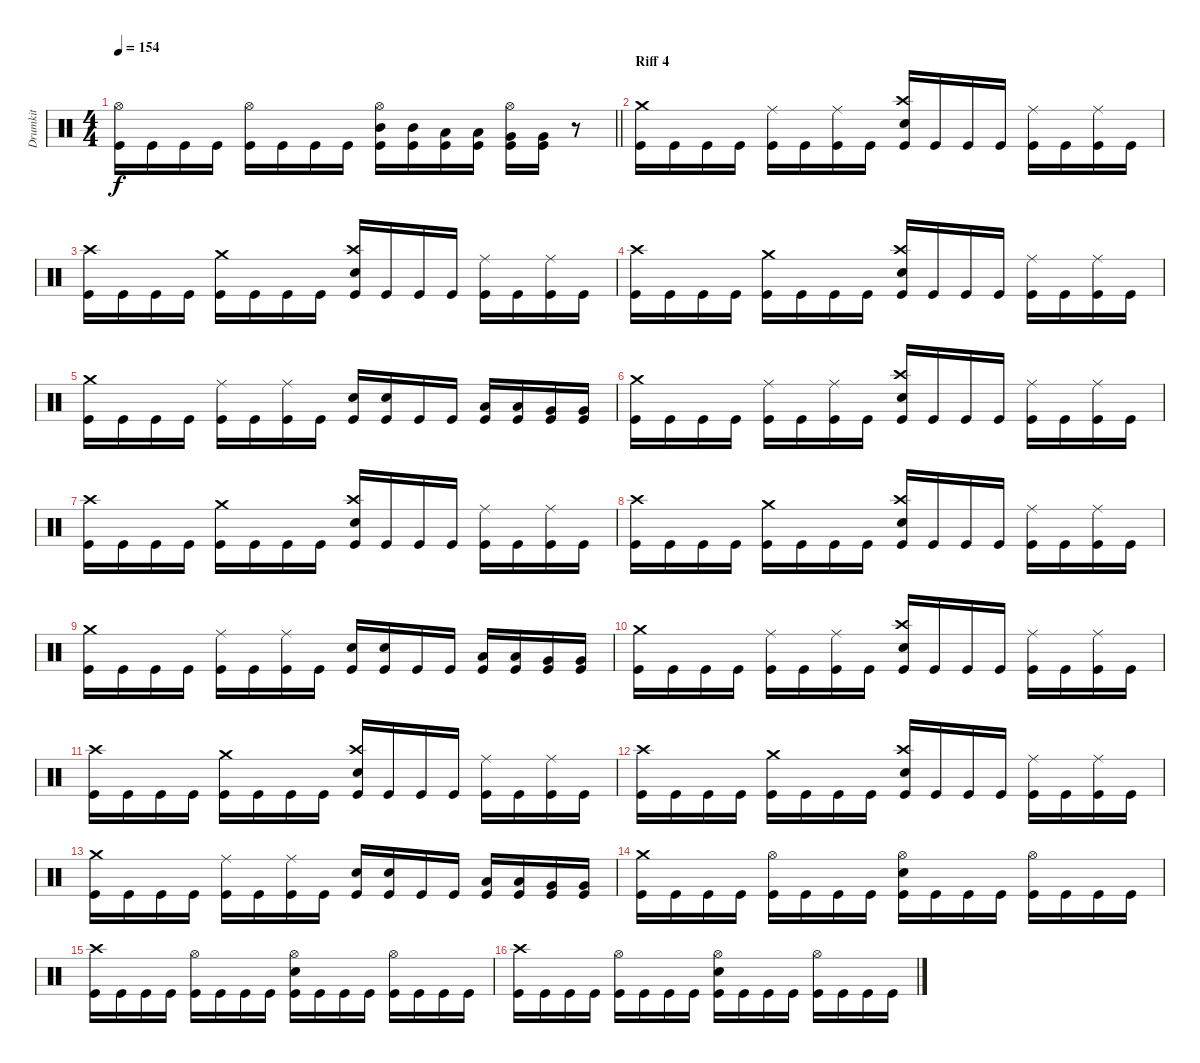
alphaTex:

\track ("Drumkit" "Drumkit") {mute instrument percussion}
\staff {score}
\articulation defaults
\ts (4 4)
\tempo 154
\clef neutral
\barLineRight lightlight
\ks c
("Hi-Hat (open)" "Kick (hit)").16{dy f} "Kick (hit)".16 "Kick (hit)".16 "Kick (hit)".16 ("Hi-Hat (open)" "Kick (hit)").16 "Kick (hit)".16 "Kick (hit)".16 "Kick (hit)".16 ("Hi-Hat (open)" "Mid Tom (hit)" "Kick (hit)").16 ("Mid Tom (hit)" "Kick (hit)").16 ("Low Tom (hit)" "Kick (hit)").16 ("Low Tom (hit)" "Kick (hit)").16 ("Hi-Hat (open)" "Very Low Tom (hit)" "Kick (hit)").16 ("Very Low Tom (hit)" "Kick (hit)").16 r.8 |
\section ("" "Riff 4")
("Crash medium (hit)" "Kick (hit)").16 "Kick (hit)".16 "Kick (hit)".16 "Kick (hit)".16 ("Ride (middle)" "Kick (hit)").16 "Kick (hit)".16 ("Ride (middle)" "Kick (hit)").16 "Kick (hit)".16 ("Crash high (hit)" "Snare (hit) 2" "Kick (hit)").16 "Kick (hit)".16 "Kick (hit)".16 "Kick (hit)".16 ("Ride (middle)" "Kick (hit)").16 "Kick (hit)".16 ("Ride (middle)" "Kick (hit)").16 "Kick (hit)".16 |
("Crash high (hit)" "Kick (hit)").16 "Kick (hit)".16 "Kick (hit)".16 "Kick (hit)".16 ("Crash medium (hit)" "Kick (hit)").16 "Kick (hit)".16 "Kick (hit)".16 "Kick (hit)".16 ("Crash high (hit)" "Snare (hit) 2" "Kick (hit)").16 "Kick (hit)".16 "Kick (hit)".16 "Kick (hit)".16 ("Ride (middle)" "Kick (hit)").16 "Kick (hit)".16 ("Ride (middle)" "Kick (hit)").16 "Kick (hit)".16 |
("Crash high (hit)" "Kick (hit)").16 "Kick (hit)".16 "Kick (hit)".16 "Kick (hit)".16 ("Crash medium (hit)" "Kick (hit)").16 "Kick (hit)".16 "Kick (hit)".16 "Kick (hit)".16 ("Crash high (hit)" "Snare (hit) 2" "Kick (hit)").16 "Kick (hit)".16 "Kick (hit)".16 "Kick (hit)".16 ("Ride (middle)" "Kick (hit)").16 "Kick (hit)".16 ("Ride (middle)" "Kick (hit)").16 "Kick (hit)".16 |
("Crash medium (hit)" "Kick (hit)").16 "Kick (hit)".16 "Kick (hit)".16 "Kick (hit)".16 ("Ride (middle)" "Kick (hit)").16 "Kick (hit)".16 ("Ride (middle)" "Kick (hit)").16 "Kick (hit)".16 ("Snare (hit) 2" "Kick (hit)").16 ("Snare (hit) 2" "Kick (hit)").16 "Kick (hit)".16 "Kick (hit)".16 ("Low Tom (hit)" "Kick (hit)").16 ("Low Tom (hit)" "Kick (hit)").16 ("Very Low Tom (hit)" "Kick (hit)").16 ("Very Low Tom (hit)" "Kick (hit)").16 |
("Crash medium (hit)" "Kick (hit)").16 "Kick (hit)".16 "Kick (hit)".16 "Kick (hit)".16 ("Ride (middle)" "Kick (hit)").16 "Kick (hit)".16 ("Ride (middle)" "Kick (hit)").16 "Kick (hit)".16 ("Crash high (hit)" "Snare (hit) 2" "Kick (hit)").16 "Kick (hit)".16 "Kick (hit)".16 "Kick (hit)".16 ("Ride (middle)" "Kick (hit)").16 "Kick (hit)".16 ("Ride (middle)" "Kick (hit)").16 "Kick (hit)".16 |
("Crash high (hit)" "Kick (hit)").16 "Kick (hit)".16 "Kick (hit)".16 "Kick (hit)".16 ("Crash medium (hit)" "Kick (hit)").16 "Kick (hit)".16 "Kick (hit)".16 "Kick (hit)".16 ("Crash high (hit)" "Snare (hit) 2" "Kick (hit)").16 "Kick (hit)".16 "Kick (hit)".16 "Kick (hit)".16 ("Ride (middle)" "Kick (hit)").16 "Kick (hit)".16 ("Ride (middle)" "Kick (hit)").16 "Kick (hit)".16 |
("Crash high (hit)" "Kick (hit)").16 "Kick (hit)".16 "Kick (hit)".16 "Kick (hit)".16 ("Crash medium (hit)" "Kick (hit)").16 "Kick (hit)".16 "Kick (hit)".16 "Kick (hit)".16 ("Crash high (hit)" "Snare (hit) 2" "Kick (hit)").16 "Kick (hit)".16 "Kick (hit)".16 "Kick (hit)".16 ("Ride (middle)" "Kick (hit)").16 "Kick (hit)".16 ("Ride (middle)" "Kick (hit)").16 "Kick (hit)".16 |
("Crash medium (hit)" "Kick (hit)").16 "Kick (hit)".16 "Kick (hit)".16 "Kick (hit)".16 ("Ride (middle)" "Kick (hit)").16 "Kick (hit)".16 ("Ride (middle)" "Kick (hit)").16 "Kick (hit)".16 ("Snare (hit) 2" "Kick (hit)").16 ("Snare (hit) 2" "Kick (hit)").16 "Kick (hit)".16 "Kick (hit)".16 ("Low Tom (hit)" "Kick (hit)").16 ("Low Tom (hit)" "Kick (hit)").16 ("Very Low Tom (hit)" "Kick (hit)").16 ("Very Low Tom (hit)" "Kick (hit)").16 |
("Crash medium (hit)" "Kick (hit)").16 "Kick (hit)".16 "Kick (hit)".16 "Kick (hit)".16 ("Ride (middle)" "Kick (hit)").16 "Kick (hit)".16 ("Ride (middle)" "Kick (hit)").16 "Kick (hit)".16 ("Crash high (hit)" "Snare (hit) 2" "Kick (hit)").16 "Kick (hit)".16 "Kick (hit)".16 "Kick (hit)".16 ("Ride (middle)" "Kick (hit)").16 "Kick (hit)".16 ("Ride (middle)" "Kick (hit)").16 "Kick (hit)".16 |
("Crash high (hit)" "Kick (hit)").16 "Kick (hit)".16 "Kick (hit)".16 "Kick (hit)".16 ("Crash medium (hit)" "Kick (hit)").16 "Kick (hit)".16 "Kick (hit)".16 "Kick (hit)".16 ("Crash high (hit)" "Snare (hit) 2" "Kick (hit)").16 "Kick (hit)".16 "Kick (hit)".16 "Kick (hit)".16 ("Ride (middle)" "Kick (hit)").16 "Kick (hit)".16 ("Ride (middle)" "Kick (hit)").16 "Kick (hit)".16 |
("Crash high (hit)" "Kick (hit)").16 "Kick (hit)".16 "Kick (hit)".16 "Kick (hit)".16 ("Crash medium (hit)" "Kick (hit)").16 "Kick (hit)".16 "Kick (hit)".16 "Kick (hit)".16 ("Crash high (hit)" "Snare (hit) 2" "Kick (hit)").16 "Kick (hit)".16 "Kick (hit)".16 "Kick (hit)".16 ("Ride (middle)" "Kick (hit)").16 "Kick (hit)".16 ("Ride (middle)" "Kick (hit)").16 "Kick (hit)".16 |
("Crash medium (hit)" "Kick (hit)").16 "Kick (hit)".16 "Kick (hit)".16 "Kick (hit)".16 ("Ride (middle)" "Kick (hit)").16 "Kick (hit)".16 ("Ride (middle)" "Kick (hit)").16 "Kick (hit)".16 ("Snare (hit) 2" "Kick (hit)").16 ("Snare (hit) 2" "Kick (hit)").16 "Kick (hit)".16 "Kick (hit)".16 ("Low Tom (hit)" "Kick (hit)").16 ("Low Tom (hit)" "Kick (hit)").16 ("Very Low Tom (hit)" "Kick (hit)").16 ("Very Low Tom (hit)" "Kick (hit)").16 |
("Crash medium (hit)" "Kick (hit)").16 "Kick (hit)".16 "Kick (hit)".16 "Kick (hit)".16 ("Hi-Hat (open)" "Kick (hit)").16 "Kick (hit)".16 "Kick (hit)".16 "Kick (hit)".16 ("Hi-Hat (open)" "Snare (hit) 2" "Kick (hit)").16 "Kick (hit)".16 "Kick (hit)".16 "Kick (hit)".16 ("Hi-Hat (open)" "Kick (hit)").16 "Kick (hit)".16 "Kick (hit)".16 "Kick (hit)".16 |
("Crash high (hit)" "Kick (hit)").16 "Kick (hit)".16 "Kick (hit)".16 "Kick (hit)".16 ("Hi-Hat (open)" "Kick (hit)").16 "Kick (hit)".16 "Kick (hit)".16 "Kick (hit)".16 ("Hi-Hat (open)" "Snare (hit) 2" "Kick (hit)").16 "Kick (hit)".16 "Kick (hit)".16 "Kick (hit)".16 ("Hi-Hat (open)" "Kick (hit)").16 "Kick (hit)".16 "Kick (hit)".16 "Kick (hit)".16 |
("Crash high (hit)" "Kick (hit)").16 "Kick (hit)".16 "Kick (hit)".16 "Kick (hit)".16 ("Hi-Hat (open)" "Kick (hit)").16 "Kick (hit)".16 "Kick (hit)".16 "Kick (hit)".16 ("Hi-Hat (open)" "Snare (hit) 2" "Kick (hit)").16 "Kick (hit)".16 "Kick (hit)".16 "Kick (hit)".16 ("Hi-Hat (open)" "Kick (hit)").16 "Kick (hit)".16 "Kick (hit)".16 "Kick (hit)".16
